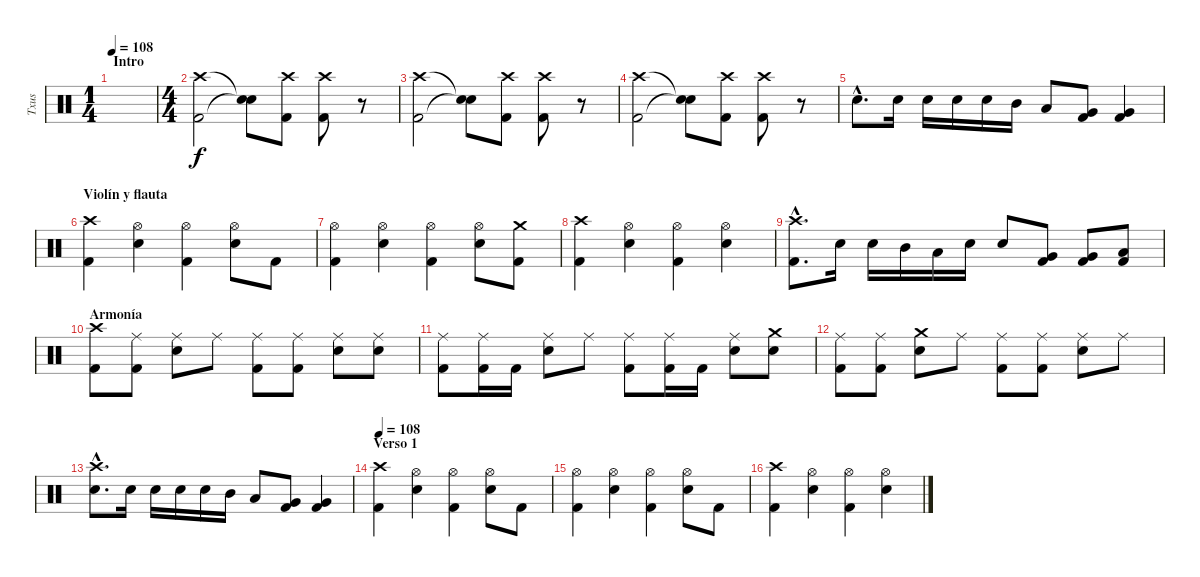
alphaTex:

\track ("Txus" "Txus") {instrument percussion}
\staff {score}
\articulation defaults
\ts (1 4)
\section ("" "Intro")
\tempo 108
\clef neutral
\ks c
|
\ts (4 4)
("Kick (hit) 2" "Crash high (hit)").2 ("Snare (hit)"{t} "Snare (hit)"{t}).8 ("Kick (hit) 2" "Crash high (hit)").8 ("Kick (hit) 2" "Crash high (hit)").8 r.8 |
("Kick (hit) 2" "Crash high (hit)").2 ("Snare (hit)"{t} "Snare (hit)"{t}).8 ("Kick (hit) 2" "Crash high (hit)").8 ("Kick (hit) 2" "Crash high (hit)").8 r.8 |
("Kick (hit) 2" "Crash high (hit)").2 ("Snare (hit)"{t} "Snare (hit)"{t}).8 ("Kick (hit) 2" "Crash high (hit)").8 ("Kick (hit) 2" "Crash high (hit)").8 r.8 |
"Electric Snare (hit)"{hac}.8{d} "Electric Snare (hit)".16 "Electric Snare (hit)".16 "Electric Snare (hit)".16 "Electric Snare (hit)".16 "Mid Tom (hit)".16 "Low Tom (hit)".8 ("Kick (hit) 2" "Very Low Tom (hit)").8 ("Kick (hit) 2" "Very Low Tom (hit)").4 |
\section ("" "Violín y flauta")
("Kick (hit) 2" "Crash high (hit)").4 ("Electric Snare (hit)" "Hi-Hat (open)").4 ("Kick (hit) 2" "Hi-Hat (open)").4 ("Electric Snare (hit)" "Hi-Hat (open)").8 "Kick (hit) 2".8 |
("Kick (hit) 2" "Hi-Hat (open)").4 ("Electric Snare (hit)" "Hi-Hat (open)").4 ("Kick (hit) 2" "Hi-Hat (open)").4 ("Electric Snare (hit)" "Hi-Hat (open)").8 ("Kick (hit) 2" "Crash medium (hit)").8 |
("Kick (hit) 2" "Crash high (hit)").4 ("Electric Snare (hit)" "Hi-Hat (open)").4 ("Kick (hit) 2" "Hi-Hat (open)").4 ("Electric Snare (hit)" "Hi-Hat (open)").4 |
("Kick (hit) 2"{hac} "Crash high (hit)"{hac}).8{d} "Electric Snare (hit)".16 "Electric Snare (hit)".16 "Mid Tom (hit)".16 "Low Tom (hit)".16 "Electric Snare (hit)".16 "Electric Snare (hit)".8 ("Kick (hit) 2" "Very Low Tom (hit)").8 ("Kick (hit) 2" "Very Low Tom (hit)").8 ("Kick (hit) 2" "Low Floor Tom (hit)").8 |
\section ("" "Armonía")
("Kick (hit) 2" "Crash high (hit)").8 ("Kick (hit) 2" "Ride (middle)").8 ("Electric Snare (hit)" "Ride (middle)").8 "Ride (middle)".8 ("Kick (hit) 2" "Ride (middle)").8 ("Kick (hit) 2" "Ride (middle)").8 ("Electric Snare (hit)" "Ride (middle)").8 ("Electric Snare (hit)" "Ride (middle)").8 |
("Kick (hit) 2" "Ride (middle)").8 ("Kick (hit) 2" "Ride (middle)").16 "Kick (hit) 2".16 ("Electric Snare (hit)" "Ride (middle)").8 "Ride (middle)".8 ("Kick (hit) 2" "Ride (middle)").8 ("Kick (hit) 2" "Ride (middle)").16 "Kick (hit) 2".16 ("Electric Snare (hit)" "Ride (middle)").8 ("Electric Snare (hit)" "Crash medium (hit)").8 |
("Kick (hit) 2" "Ride (middle)").8 ("Kick (hit) 2" "Ride (middle)").8 ("Electric Snare (hit)" "Crash medium (hit)").8 "Ride (middle)".8 ("Kick (hit) 2" "Ride (middle)").8 ("Kick (hit) 2" "Ride (middle)").8 ("Electric Snare (hit)" "Ride (middle)").8 "Ride (middle)".8 |
("Electric Snare (hit)"{hac} "Crash high (hit)"{hac}).8{d} "Electric Snare (hit)".16 "Electric Snare (hit)".16 "Electric Snare (hit)".16 "Electric Snare (hit)".16 "Mid Tom (hit)".16 "Low Tom (hit)".8 ("Kick (hit) 2" "Very Low Tom (hit)").8 ("Kick (hit) 2" "Very Low Tom (hit)").4 |
\section ("" "Verso 1")
\tempo 108
("Kick (hit) 2" "Crash high (hit)").4 ("Electric Snare (hit)" "Hi-Hat (open)").4 ("Kick (hit) 2" "Hi-Hat (open)").4 ("Electric Snare (hit)" "Hi-Hat (open)").8 "Kick (hit) 2".8 |
("Kick (hit) 2" "Hi-Hat (open)").4 ("Electric Snare (hit)" "Hi-Hat (open)").4 ("Kick (hit) 2" "Hi-Hat (open)").4 ("Electric Snare (hit)" "Hi-Hat (open)").8 "Kick (hit) 2".8 |
("Kick (hit) 2" "Crash high (hit)").4 ("Electric Snare (hit)" "Hi-Hat (open)").4 ("Kick (hit) 2" "Hi-Hat (open)").4 ("Electric Snare (hit)" "Hi-Hat (open)").4
